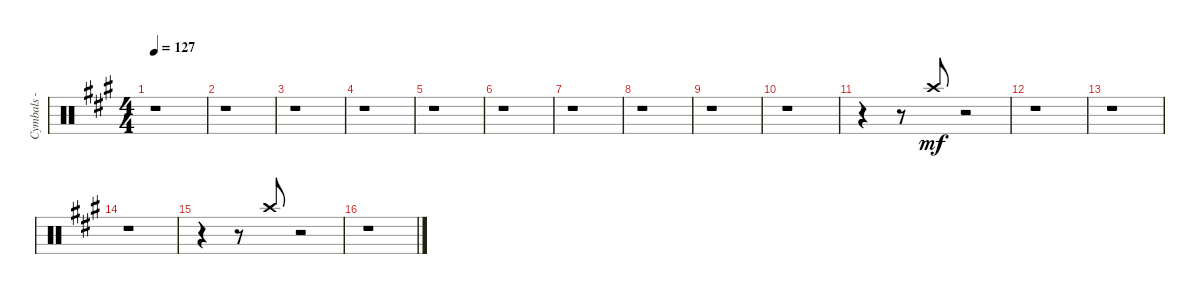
\track ("Cymbals - crash" "Cymbals - ") {instrument percussion}
\staff {score}
\articulation defaults
\ts (4 4)
\tempo 127
\clef neutral
\ks a
r.1{dy mf} |
r.1 |
r.1 |
r.1 |
r.1 |
r.1 |
r.1 |
r.1 |
r.1 |
r.1 |
r.4 r.8 "Crash high (hit)".8{beam Up} r.2 |
r.1 |
r.1 |
r.1 |
r.4{beam merge} r.8 "Crash high (hit)".8{beam Up} r.2 |
r.1
